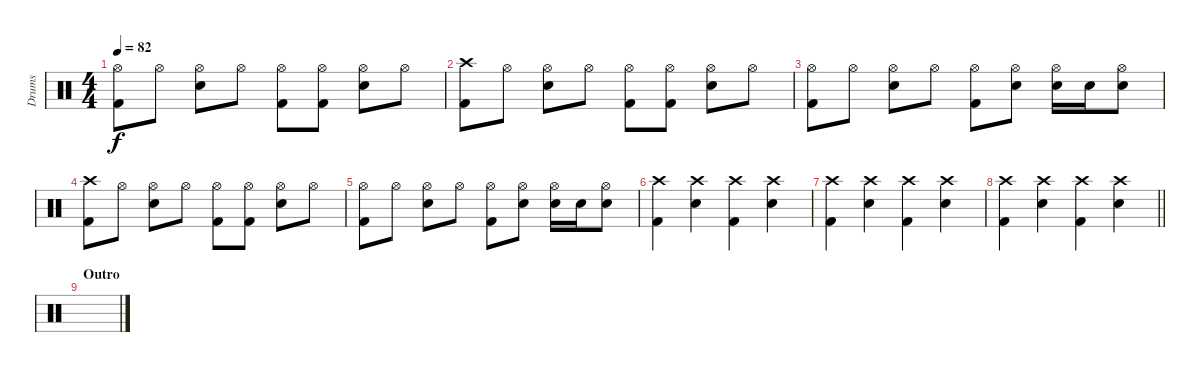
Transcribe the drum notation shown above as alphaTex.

\track ("Drums" "Drums") {instrument percussion}
\staff {score}
\articulation defaults
\ts (4 4)
\tempo 82
\clef neutral
\ks c
("Hi-Hat (open)" "Kick (hit) 2").8{dy f} "Hi-Hat (open)".8 ("Hi-Hat (open)" "Snare (hit) 2").8 "Hi-Hat (open)".8 ("Hi-Hat (open)" "Kick (hit) 2").8 ("Hi-Hat (open)" "Kick (hit) 2").8 ("Hi-Hat (open)" "Snare (hit) 2").8 "Hi-Hat (open)".8 |
("Crash high (hit)" "Kick (hit) 2").8 "Hi-Hat (open)".8 ("Hi-Hat (open)" "Snare (hit) 2").8 "Hi-Hat (open)".8 ("Hi-Hat (open)" "Kick (hit) 2").8 ("Hi-Hat (open)" "Kick (hit) 2").8 ("Hi-Hat (open)" "Snare (hit) 2").8 "Hi-Hat (open)".8 |
("Hi-Hat (open)" "Kick (hit) 2").8 "Hi-Hat (open)".8 ("Hi-Hat (open)" "Snare (hit) 2").8 "Hi-Hat (open)".8 ("Hi-Hat (open)" "Kick (hit) 2").8 ("Hi-Hat (open)" "Snare (hit) 2").8 ("Hi-Hat (open)" "Snare (hit) 2").16 "Snare (hit) 2".16 ("Hi-Hat (open)" "Snare (hit) 2").8 |
("Crash high (hit)" "Kick (hit) 2").8 "Hi-Hat (open)".8 ("Hi-Hat (open)" "Snare (hit) 2").8 "Hi-Hat (open)".8 ("Hi-Hat (open)" "Kick (hit) 2").8 ("Hi-Hat (open)" "Kick (hit) 2").8 ("Hi-Hat (open)" "Snare (hit) 2").8 "Hi-Hat (open)".8 |
("Hi-Hat (open)" "Kick (hit) 2").8 "Hi-Hat (open)".8 ("Hi-Hat (open)" "Snare (hit) 2").8 "Hi-Hat (open)".8 ("Hi-Hat (open)" "Kick (hit) 2").8 ("Hi-Hat (open)" "Snare (hit) 2").8 ("Hi-Hat (open)" "Snare (hit) 2").16 "Snare (hit) 2".16 ("Hi-Hat (open)" "Snare (hit) 2").8 |
("Crash high (hit)" "Kick (hit) 2").4 ("Crash high (hit)" "Snare (hit) 2").4 ("Crash high (hit)" "Kick (hit) 2").4 ("Crash high (hit)" "Snare (hit) 2").4 |
("Crash high (hit)" "Kick (hit) 2").4 ("Crash high (hit)" "Snare (hit) 2").4 ("Crash high (hit)" "Kick (hit) 2").4 ("Crash high (hit)" "Snare (hit) 2").4 |
\barLineRight lightlight
("Crash high (hit)" "Kick (hit) 2").4 ("Crash high (hit)" "Snare (hit) 2").4 ("Crash high (hit)" "Kick (hit) 2").4 ("Crash high (hit)" "Snare (hit) 2").4 |
\section ("" "Outro")
